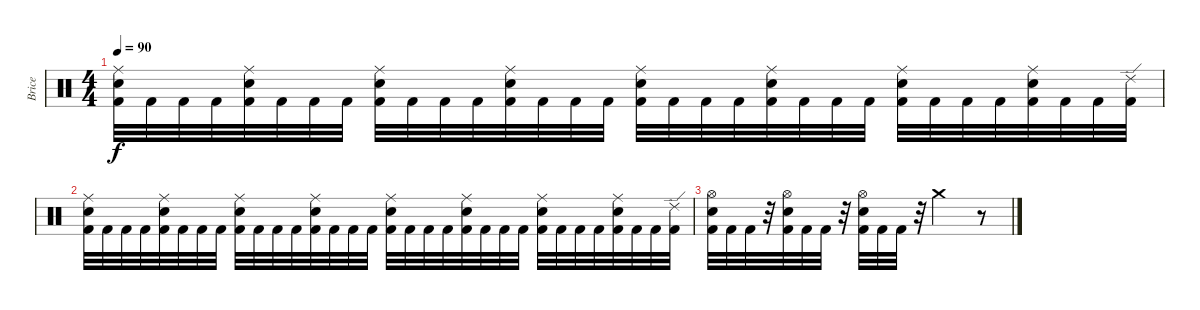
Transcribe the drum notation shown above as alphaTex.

\track ("Brice" "Brice") {instrument percussion}
\staff {score}
\articulation defaults
\ts (4 4)
\tempo 90
\clef neutral
\ks c
("Ride (middle)" "Electric Snare (hit)" "Kick (hit) 2").32{dy f} "Kick (hit) 2".32 "Kick (hit) 2".32 "Kick (hit) 2".32 ("Ride (middle)" "Electric Snare (hit)" "Kick (hit) 2").32 "Kick (hit) 2".32 "Kick (hit) 2".32 "Kick (hit) 2".32 ("Ride (middle)" "Electric Snare (hit)" "Kick (hit) 2").32 "Kick (hit) 2".32 "Kick (hit) 2".32 "Kick (hit) 2".32 ("Ride (middle)" "Electric Snare (hit)" "Kick (hit) 2").32 "Kick (hit) 2".32 "Kick (hit) 2".32 "Kick (hit) 2".32 ("Ride (middle)" "Electric Snare (hit)" "Kick (hit) 2").32 "Kick (hit) 2".32 "Kick (hit) 2".32 "Kick (hit) 2".32 ("Ride (middle)" "Electric Snare (hit)" "Kick (hit) 2").32 "Kick (hit) 2".32 "Kick (hit) 2".32 "Kick (hit) 2".32 ("Ride (middle)" "Electric Snare (hit)" "Kick (hit) 2").32 "Kick (hit) 2".32 "Kick (hit) 2".32 "Kick (hit) 2".32 ("Ride (middle)" "Electric Snare (hit)" "Kick (hit) 2").32 "Kick (hit) 2".32 "Kick (hit) 2".32 ("Ride (edge) 2" "Kick (hit) 2").32 |
("Ride (middle)" "Electric Snare (hit)" "Kick (hit) 2").32 "Kick (hit) 2".32 "Kick (hit) 2".32 "Kick (hit) 2".32 ("Ride (middle)" "Electric Snare (hit)" "Kick (hit) 2").32 "Kick (hit) 2".32 "Kick (hit) 2".32 "Kick (hit) 2".32 ("Ride (middle)" "Electric Snare (hit)" "Kick (hit) 2").32 "Kick (hit) 2".32 "Kick (hit) 2".32 "Kick (hit) 2".32 ("Ride (middle)" "Electric Snare (hit)" "Kick (hit) 2").32 "Kick (hit) 2".32 "Kick (hit) 2".32 "Kick (hit) 2".32 ("Ride (middle)" "Electric Snare (hit)" "Kick (hit) 2").32 "Kick (hit) 2".32 "Kick (hit) 2".32 "Kick (hit) 2".32 ("Ride (middle)" "Electric Snare (hit)" "Kick (hit) 2").32 "Kick (hit) 2".32 "Kick (hit) 2".32 "Kick (hit) 2".32 ("Ride (middle)" "Electric Snare (hit)" "Kick (hit) 2").32 "Kick (hit) 2".32 "Kick (hit) 2".32 "Kick (hit) 2".32 ("Ride (middle)" "Electric Snare (hit)" "Kick (hit) 2").32 "Kick (hit) 2".32 "Kick (hit) 2".32 ("Ride (edge) 2" "Kick (hit) 2").32 |
("Hi-Hat (open)" "Electric Snare (hit)" "Kick (hit) 2").32 "Kick (hit) 2".32 "Kick (hit) 2".32 r.32 ("Hi-Hat (open)" "Electric Snare (hit)" "Kick (hit) 2").32 "Kick (hit) 2".32 "Kick (hit) 2".32 r.32 ("Hi-Hat (open)" "Electric Snare (hit)" "Kick (hit) 2").32 "Kick (hit) 2".32 "Kick (hit) 2".32 r.32 "Crash medium (hit)".2 r.8
